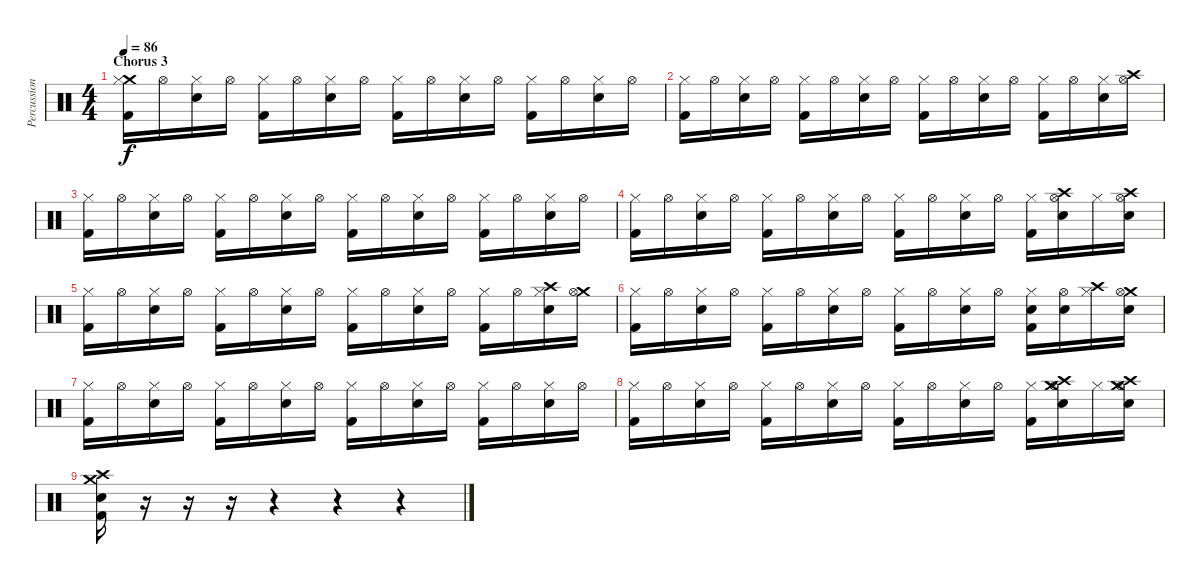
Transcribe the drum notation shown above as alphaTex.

\track ("Percussion" "Percussion") {instrument percussion}
\staff {score}
\articulation defaults
\ts (4 4)
\section ("" "Chorus 3")
\tempo 86
\clef neutral
\ks c
("Crash medium (hit)" "Hi-Hat (closed)" "Kick (hit) 2").16{dy f} "Hi-Hat (open)".16 ("Hi-Hat (closed)" "Electric Snare (hit)").16 "Hi-Hat (open)".16 ("Hi-Hat (closed)" "Kick (hit) 2").16 "Hi-Hat (open)".16 ("Hi-Hat (closed)" "Electric Snare (hit)").16 "Hi-Hat (open)".16 ("Hi-Hat (closed)" "Kick (hit) 2").16 "Hi-Hat (open)".16 ("Hi-Hat (closed)" "Electric Snare (hit)").16 "Hi-Hat (open)".16 ("Hi-Hat (closed)" "Kick (hit) 2").16 "Hi-Hat (open)".16 ("Hi-Hat (closed)" "Electric Snare (hit)").16 "Hi-Hat (open)".16 |
("Hi-Hat (closed)" "Kick (hit) 2").16 "Hi-Hat (open)".16 ("Hi-Hat (closed)" "Electric Snare (hit)").16 "Hi-Hat (open)".16 ("Hi-Hat (closed)" "Kick (hit) 2").16 "Hi-Hat (open)".16 ("Hi-Hat (closed)" "Electric Snare (hit)").16 "Hi-Hat (open)".16 ("Hi-Hat (closed)" "Kick (hit) 2").16 "Hi-Hat (open)".16 ("Hi-Hat (closed)" "Electric Snare (hit)").16 "Hi-Hat (open)".16 ("Hi-Hat (closed)" "Kick (hit) 2").16 "Hi-Hat (open)".16 ("Hi-Hat (closed)" "Electric Snare (hit)").16 ("Crash high (hit)" "Hi-Hat (open)").16 |
("Hi-Hat (closed)" "Kick (hit) 2").16 "Hi-Hat (open)".16 ("Hi-Hat (closed)" "Electric Snare (hit)").16 "Hi-Hat (open)".16 ("Hi-Hat (closed)" "Kick (hit) 2").16 "Hi-Hat (open)".16 ("Hi-Hat (closed)" "Electric Snare (hit)").16 "Hi-Hat (open)".16 ("Hi-Hat (closed)" "Kick (hit) 2").16 "Hi-Hat (open)".16 ("Hi-Hat (closed)" "Electric Snare (hit)").16 "Hi-Hat (open)".16 ("Hi-Hat (closed)" "Kick (hit) 2").16 "Hi-Hat (open)".16 ("Hi-Hat (closed)" "Electric Snare (hit)").16 "Hi-Hat (open)".16 |
("Hi-Hat (closed)" "Kick (hit) 2").16 "Hi-Hat (open)".16 ("Hi-Hat (closed)" "Electric Snare (hit)").16 "Hi-Hat (open)".16 ("Hi-Hat (closed)" "Kick (hit) 2").16 "Hi-Hat (open)".16 ("Hi-Hat (closed)" "Electric Snare (hit)").16 "Hi-Hat (open)".16 ("Hi-Hat (closed)" "Kick (hit) 2").16 "Hi-Hat (open)".16 ("Hi-Hat (closed)" "Electric Snare (hit)").16 "Hi-Hat (open)".16 ("Hi-Hat (closed)" "Kick (hit) 2").16 ("Crash high (hit)" "Hi-Hat (open)" "Electric Snare (hit)").16 "Hi-Hat (closed)".16 ("Crash high (hit)" "Hi-Hat (open)" "Electric Snare (hit)").16 |
("Hi-Hat (closed)" "Kick (hit) 2").16 "Hi-Hat (open)".16 ("Hi-Hat (closed)" "Electric Snare (hit)").16 "Hi-Hat (open)".16 ("Hi-Hat (closed)" "Kick (hit) 2").16 "Hi-Hat (open)".16 ("Hi-Hat (closed)" "Electric Snare (hit)").16 "Hi-Hat (open)".16 ("Hi-Hat (closed)" "Kick (hit) 2").16 "Hi-Hat (open)".16 ("Hi-Hat (closed)" "Electric Snare (hit)").16 "Hi-Hat (open)".16 ("Hi-Hat (closed)" "Kick (hit) 2").16 "Hi-Hat (open)".16 ("Crash high (hit)" "Hi-Hat (closed)" "Electric Snare (hit)").16 ("Crash medium (hit)" "Hi-Hat (open)").16 |
("Hi-Hat (closed)" "Kick (hit) 2").16 "Hi-Hat (open)".16 ("Hi-Hat (closed)" "Electric Snare (hit)").16 "Hi-Hat (open)".16 ("Hi-Hat (closed)" "Kick (hit) 2").16 "Hi-Hat (open)".16 ("Hi-Hat (closed)" "Electric Snare (hit)").16 "Hi-Hat (open)".16 ("Hi-Hat (closed)" "Kick (hit) 2").16 "Hi-Hat (open)".16 ("Hi-Hat (closed)" "Electric Snare (hit)").16 "Hi-Hat (open)".16 ("Hi-Hat (closed)" "Electric Snare (hit)" "Kick (hit) 2").16 ("Hi-Hat (open)" "Electric Snare (hit)").16 ("Crash high (hit)" "Hi-Hat (closed)").16 ("Crash medium (hit)" "Hi-Hat (open)" "Electric Snare (hit)").16 |
("Hi-Hat (closed)" "Kick (hit) 2").16 "Hi-Hat (open)".16 ("Hi-Hat (closed)" "Electric Snare (hit)").16 "Hi-Hat (open)".16 ("Hi-Hat (closed)" "Kick (hit) 2").16 "Hi-Hat (open)".16 ("Hi-Hat (closed)" "Electric Snare (hit)").16 "Hi-Hat (open)".16 ("Hi-Hat (closed)" "Kick (hit) 2").16 "Hi-Hat (open)".16 ("Hi-Hat (closed)" "Electric Snare (hit)").16 "Hi-Hat (open)".16 ("Hi-Hat (closed)" "Kick (hit) 2").16 "Hi-Hat (open)".16 ("Hi-Hat (closed)" "Electric Snare (hit)").16 "Hi-Hat (open)".16 |
("Hi-Hat (closed)" "Kick (hit) 2").16 "Hi-Hat (open)".16 ("Hi-Hat (closed)" "Electric Snare (hit)").16 "Hi-Hat (open)".16 ("Hi-Hat (closed)" "Kick (hit) 2").16 "Hi-Hat (open)".16 ("Hi-Hat (closed)" "Electric Snare (hit)").16 "Hi-Hat (open)".16 ("Hi-Hat (closed)" "Kick (hit) 2").16 "Hi-Hat (open)".16 ("Hi-Hat (closed)" "Electric Snare (hit)").16 "Hi-Hat (open)".16 ("Hi-Hat (closed)" "Kick (hit) 2").16 ("Crash high (hit)" "Crash medium (hit)" "Hi-Hat (open)" "Electric Snare (hit)").16 "Hi-Hat (closed)".16 ("Crash high (hit)" "Crash medium (hit)" "Hi-Hat (open)" "Electric Snare (hit)").16 |
("Crash high (hit)" "Crash medium (hit)" "Electric Snare (hit)" "Kick (hit) 2").16 r.16 r.16 r.16 r.4 r.4 r.4
